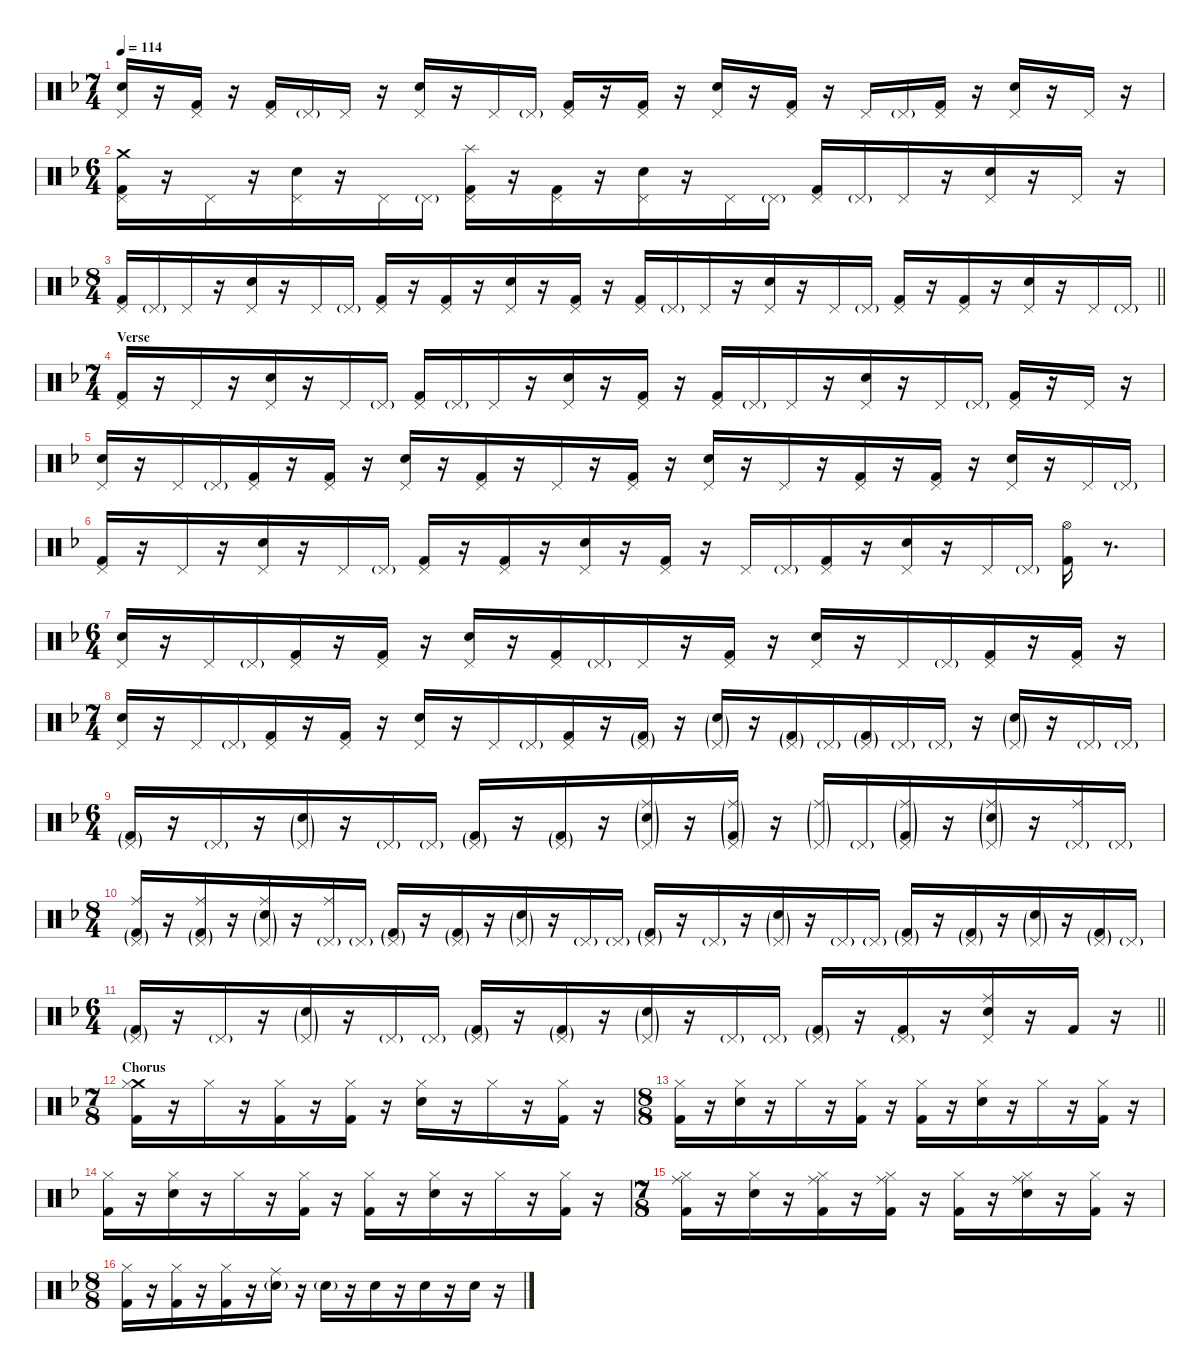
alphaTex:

\defaultSystemsLayout 4
\hideDynamics
\bracketExtendMode nobrackets
\singleTrackTrackNamePolicy hidden
\multiTrackTrackNamePolicy hidden
\firstSystemTrackNameMode fullname
\otherSystemsTrackNameOrientation horizontal
\track ("Drums" "drm.") {instrument percussion}
\staff {score}
\articulation defaults
\ts (7 4)
\tempo 114
\clef neutral
\ks dminor
("Pedal Hi-Hat (hit)"{acc forcenatural} "Snare (hit) 2"{acc forcenatural}).16{dy f beam Up} r.16{beam Up} ("Pedal Hi-Hat (hit)"{acc forcenatural} "Kick (hit) 2"{acc forcenatural}).16{beam Up} r.16{beam Up} ("Pedal Hi-Hat (hit)"{acc forcenatural} "Kick (hit) 2"{acc forcenatural}).16{beam Up} "Pedal Hi-Hat (hit)"{g acc forcenatural}.16{dy mf beam Up} "Pedal Hi-Hat (hit)"{acc forcenatural}.16{dy f beam Up} r.16{beam Up} ("Pedal Hi-Hat (hit)"{acc forcenatural} "Snare (hit) 2"{acc forcenatural}).16{beam Up} r.16{beam Up} "Pedal Hi-Hat (hit)"{acc forcenatural}.16{beam Up} "Pedal Hi-Hat (hit)"{g acc forcenatural}.16{dy mf beam Up} ("Pedal Hi-Hat (hit)"{acc forcenatural} "Kick (hit) 2"{acc forcenatural}).16{dy f beam Up} r.16{beam Up} ("Pedal Hi-Hat (hit)"{acc forcenatural} "Kick (hit) 2"{acc forcenatural}).16{beam Up} r.16{beam Up} ("Pedal Hi-Hat (hit)"{acc forcenatural} "Snare (hit) 2"{acc forcenatural}).16{beam Up} r.16{beam Up} ("Pedal Hi-Hat (hit)"{acc forcenatural} "Kick (hit) 2"{acc forcenatural}).16{beam Up} r.16{beam Up} "Pedal Hi-Hat (hit)"{acc forcenatural}.16{beam Up} "Pedal Hi-Hat (hit)"{g acc forcenatural}.16{dy mf beam Up} ("Pedal Hi-Hat (hit)"{acc forcenatural} "Kick (hit) 2"{acc forcenatural}).16{dy f beam Up} r.16{beam Up} ("Pedal Hi-Hat (hit)"{acc forcenatural} "Snare (hit) 2"{acc forcenatural}).16{beam Up} r.16{beam Up} "Pedal Hi-Hat (hit)"{acc forcenatural}.16{beam Up} r.16{beam Up} |
\ts (6 4)
\beaming (8 4 4 4 4)
("Crash medium (hit)"{acc forcenatural} "Pedal Hi-Hat (hit)"{acc forcenatural} "Kick (hit) 2"{acc forcenatural}).16{beam Down} r.16{beam Down} "Pedal Hi-Hat (hit)"{acc forcenatural}.16{beam Down} r.16{beam Down} ("Pedal Hi-Hat (hit)"{acc forcenatural} "Snare (hit) 2"{acc forcenatural}).16{beam Down} r.16{beam Down} "Pedal Hi-Hat (hit)"{acc forcenatural}.16{beam Down} "Pedal Hi-Hat (hit)"{g acc forcenatural}.16{dy mf beam Down} ("Splash (hit)"{acc forcenatural} "Pedal Hi-Hat (hit)"{acc forcenatural} "Kick (hit) 2"{acc forcenatural}).16{dy f beam Down} r.16{beam Down} ("Pedal Hi-Hat (hit)"{acc forcenatural} "Kick (hit) 2"{acc forcenatural}).16{beam Down} r.16{beam Down} ("Pedal Hi-Hat (hit)"{acc forcenatural} "Snare (hit) 2"{acc forcenatural}).16{beam Down} r.16{beam Down} "Pedal Hi-Hat (hit)"{acc forcenatural}.16{beam Down} "Pedal Hi-Hat (hit)"{g acc forcenatural}.16{dy mf beam Down} ("Pedal Hi-Hat (hit)"{acc forcenatural} "Kick (hit) 2"{acc forcenatural}).16{dy f beam Up} "Pedal Hi-Hat (hit)"{g acc forcenatural}.16{dy mf beam Up} "Pedal Hi-Hat (hit)"{acc forcenatural}.16{dy f beam Up} r.16{beam Up} ("Pedal Hi-Hat (hit)"{acc forcenatural} "Snare (hit) 2"{acc forcenatural}).16{beam Up} r.16{beam Up} "Pedal Hi-Hat (hit)"{acc forcenatural}.16{beam Up} r.16{beam Up} |
\ts (8 4)
\beaming (8 4 4 4 4)
\barLineRight lightlight
("Pedal Hi-Hat (hit)"{acc forcenatural} "Kick (hit) 2"{acc forcenatural}).16{beam Up} "Pedal Hi-Hat (hit)"{g acc forcenatural}.16{dy mf beam Up} "Pedal Hi-Hat (hit)"{acc forcenatural}.16{dy f beam Up} r.16{beam Up} ("Pedal Hi-Hat (hit)"{acc forcenatural} "Snare (hit) 2"{acc forcenatural}).16{beam Up} r.16{beam Up} "Pedal Hi-Hat (hit)"{acc forcenatural}.16{beam Up} "Pedal Hi-Hat (hit)"{g acc forcenatural}.16{dy mf beam Up} ("Pedal Hi-Hat (hit)"{acc forcenatural} "Kick (hit) 2"{acc forcenatural}).16{dy f beam Up} r.16{beam Up} ("Pedal Hi-Hat (hit)"{acc forcenatural} "Kick (hit) 2"{acc forcenatural}).16{beam Up} r.16{beam Up} ("Pedal Hi-Hat (hit)"{acc forcenatural} "Snare (hit) 2"{acc forcenatural}).16{beam Up} r.16{beam Up} ("Pedal Hi-Hat (hit)"{acc forcenatural} "Kick (hit) 2"{acc forcenatural}).16{beam Up} r.16{beam Up} ("Pedal Hi-Hat (hit)"{acc forcenatural} "Kick (hit) 2"{acc forcenatural}).16{beam Up} "Pedal Hi-Hat (hit)"{g acc forcenatural}.16{dy mf beam Up} "Pedal Hi-Hat (hit)"{acc forcenatural}.16{dy f beam Up} r.16{beam Up} ("Pedal Hi-Hat (hit)"{acc forcenatural} "Snare (hit) 2"{acc forcenatural}).16{beam Up} r.16{beam Up} "Pedal Hi-Hat (hit)"{acc forcenatural}.16{beam Up} "Pedal Hi-Hat (hit)"{g acc forcenatural}.16{dy mf beam Up} ("Pedal Hi-Hat (hit)"{acc forcenatural} "Kick (hit) 2"{acc forcenatural}).16{dy f beam Up} r.16{beam Up} ("Pedal Hi-Hat (hit)"{acc forcenatural} "Kick (hit) 2"{acc forcenatural}).16{beam Up} r.16{beam Up} ("Pedal Hi-Hat (hit)"{acc forcenatural} "Snare (hit) 2"{acc forcenatural}).16{beam Up} r.16{beam Up} "Pedal Hi-Hat (hit)"{acc forcenatural}.16{beam Up} "Pedal Hi-Hat (hit)"{g acc forcenatural}.16{dy mf beam Up} |
\ts (7 4)
\beaming (8 4 4 4 4)
\section ("" "Verse")
("Pedal Hi-Hat (hit)"{acc forcenatural} "Kick (hit) 2"{acc forcenatural}).16{dy f beam Up} r.16{beam Up} "Pedal Hi-Hat (hit)"{acc forcenatural}.16{beam Up} r.16{beam Up} ("Pedal Hi-Hat (hit)"{acc forcenatural} "Snare (hit) 2"{acc forcenatural}).16{beam Up} r.16{beam Up} "Pedal Hi-Hat (hit)"{acc forcenatural}.16{beam Up} "Pedal Hi-Hat (hit)"{g acc forcenatural}.16{dy mf beam Up} ("Pedal Hi-Hat (hit)"{acc forcenatural} "Kick (hit) 2"{acc forcenatural}).16{dy f beam Up} "Pedal Hi-Hat (hit)"{g acc forcenatural}.16{dy mf beam Up} "Pedal Hi-Hat (hit)"{acc forcenatural}.16{dy f beam Up} r.16{beam Up} ("Pedal Hi-Hat (hit)"{acc forcenatural} "Snare (hit) 2"{acc forcenatural}).16{beam Up} r.16{beam Up} ("Pedal Hi-Hat (hit)"{acc forcenatural} "Kick (hit) 2"{acc forcenatural}).16{beam Up} r.16{beam Up} ("Pedal Hi-Hat (hit)"{acc forcenatural} "Kick (hit) 2"{acc forcenatural}).16{beam Up} "Pedal Hi-Hat (hit)"{g acc forcenatural}.16{dy mf beam Up} "Pedal Hi-Hat (hit)"{acc forcenatural}.16{dy f beam Up} r.16{beam Up} ("Pedal Hi-Hat (hit)"{acc forcenatural} "Snare (hit) 2"{acc forcenatural}).16{beam Up} r.16{beam Up} "Pedal Hi-Hat (hit)"{acc forcenatural}.16{beam Up} "Pedal Hi-Hat (hit)"{g acc forcenatural}.16{dy mf beam Up} ("Pedal Hi-Hat (hit)"{acc forcenatural} "Kick (hit) 2"{acc forcenatural}).16{dy f beam Up} r.16{beam Up} "Pedal Hi-Hat (hit)"{acc forcenatural}.16{beam Up} r.16{beam Up} |
("Pedal Hi-Hat (hit)"{acc forcenatural} "Snare (hit) 2"{acc forcenatural}).16{beam Up} r.16{beam Up} "Pedal Hi-Hat (hit)"{acc forcenatural}.16{beam Up} "Pedal Hi-Hat (hit)"{g acc forcenatural}.16{dy mf beam Up} ("Pedal Hi-Hat (hit)"{acc forcenatural} "Kick (hit) 2"{acc forcenatural}).16{dy f beam Up} r.16{beam Up} ("Pedal Hi-Hat (hit)"{acc forcenatural} "Kick (hit) 2"{acc forcenatural}).16{beam Up} r.16{beam Up} ("Pedal Hi-Hat (hit)"{acc forcenatural} "Snare (hit) 2"{acc forcenatural}).16{beam Up} r.16{beam Up} ("Pedal Hi-Hat (hit)"{acc forcenatural} "Kick (hit) 2"{acc forcenatural}).16{beam Up} r.16{beam Up} "Pedal Hi-Hat (hit)"{acc forcenatural}.16{beam Up} r.16{beam Up} ("Pedal Hi-Hat (hit)"{acc forcenatural} "Kick (hit) 2"{acc forcenatural}).16{beam Up} r.16{beam Up} ("Pedal Hi-Hat (hit)"{acc forcenatural} "Snare (hit) 2"{acc forcenatural}).16{beam Up} r.16{beam Up} "Pedal Hi-Hat (hit)"{acc forcenatural}.16{beam Up} r.16{beam Up} ("Pedal Hi-Hat (hit)"{acc forcenatural} "Kick (hit) 2"{acc forcenatural}).16{beam Up} r.16{beam Up} ("Pedal Hi-Hat (hit)"{acc forcenatural} "Kick (hit) 2"{acc forcenatural}).16{beam Up} r.16{beam Up} ("Pedal Hi-Hat (hit)"{acc forcenatural} "Snare (hit) 2"{acc forcenatural}).16{beam Up} r.16{beam Up} "Pedal Hi-Hat (hit)"{acc forcenatural}.16{beam Up} "Pedal Hi-Hat (hit)"{g acc forcenatural}.16{dy mf beam Up} |
("Pedal Hi-Hat (hit)"{acc forcenatural} "Kick (hit) 2"{acc forcenatural}).16{dy f beam Up} r.16{beam Up} "Pedal Hi-Hat (hit)"{acc forcenatural}.16{beam Up} r.16{beam Up} ("Pedal Hi-Hat (hit)"{acc forcenatural} "Snare (hit) 2"{acc forcenatural}).16{beam Up} r.16{beam Up} "Pedal Hi-Hat (hit)"{acc forcenatural}.16{beam Up} "Pedal Hi-Hat (hit)"{g acc forcenatural}.16{dy mf beam Up} ("Pedal Hi-Hat (hit)"{acc forcenatural} "Kick (hit) 2"{acc forcenatural}).16{dy f beam Up} r.16{beam Up} ("Pedal Hi-Hat (hit)"{acc forcenatural} "Kick (hit) 2"{acc forcenatural}).16{beam Up} r.16{beam Up} ("Pedal Hi-Hat (hit)"{acc forcenatural} "Snare (hit) 2"{acc forcenatural}).16{beam Up} r.16{beam Up} ("Pedal Hi-Hat (hit)"{acc forcenatural} "Kick (hit) 2"{acc forcenatural}).16{beam Up} r.16{beam Up} "Pedal Hi-Hat (hit)"{acc forcenatural}.16{beam Up} "Pedal Hi-Hat (hit)"{g acc forcenatural}.16{dy mf beam Up} ("Pedal Hi-Hat (hit)"{acc forcenatural} "Kick (hit) 2"{acc forcenatural}).16{dy f beam Up} r.16{beam Up} ("Pedal Hi-Hat (hit)"{acc forcenatural} "Snare (hit) 2"{acc forcenatural}).16{beam Up} r.16{beam Up} "Pedal Hi-Hat (hit)"{acc forcenatural}.16{beam Up} "Pedal Hi-Hat (hit)"{g acc forcenatural}.16{dy mf beam Up} ("Hi-Hat (open)"{acc forcenatural} "Kick (hit) 2"{acc forcenatural}).16{dy f beam Down} r.8{d beam Down} |
\ts (6 4)
\beaming (8 4 4 4 4)
("Pedal Hi-Hat (hit)"{acc forcenatural} "Snare (hit) 2"{acc forcenatural}).16{beam Up} r.16{beam Up} "Pedal Hi-Hat (hit)"{acc forcenatural}.16{beam Up} "Pedal Hi-Hat (hit)"{g acc forcenatural}.16{dy mf beam Up} ("Pedal Hi-Hat (hit)"{acc forcenatural} "Kick (hit) 2"{acc forcenatural}).16{dy f beam Up} r.16{beam Up} ("Pedal Hi-Hat (hit)"{acc forcenatural} "Kick (hit) 2"{acc forcenatural}).16{beam Up} r.16{beam Up} ("Pedal Hi-Hat (hit)"{acc forcenatural} "Snare (hit) 2"{acc forcenatural}).16{beam Up} r.16{beam Up} ("Pedal Hi-Hat (hit)"{acc forcenatural} "Kick (hit) 2"{acc forcenatural}).16{beam Up} "Pedal Hi-Hat (hit)"{g acc forcenatural}.16{dy mf beam Up} "Pedal Hi-Hat (hit)"{acc forcenatural}.16{dy f beam Up} r.16{beam Up} ("Pedal Hi-Hat (hit)"{acc forcenatural} "Kick (hit) 2"{acc forcenatural}).16{beam Up} r.16{beam Up} ("Pedal Hi-Hat (hit)"{acc forcenatural} "Snare (hit) 2"{acc forcenatural}).16{beam Up} r.16{beam Up} "Pedal Hi-Hat (hit)"{acc forcenatural}.16{beam Up} "Pedal Hi-Hat (hit)"{g acc forcenatural}.16{dy mf beam Up} ("Pedal Hi-Hat (hit)"{acc forcenatural} "Kick (hit) 2"{acc forcenatural}).16{dy f beam Up} r.16{beam Up} ("Pedal Hi-Hat (hit)"{acc forcenatural} "Kick (hit) 2"{acc forcenatural}).16{beam Up} r.16{beam Up} |
\ts (7 4)
\beaming (8 4 4 4 4)
("Pedal Hi-Hat (hit)"{acc forcenatural} "Snare (hit) 2"{acc forcenatural}).16{beam Up} r.16{beam Up} "Pedal Hi-Hat (hit)"{acc forcenatural}.16{beam Up} "Pedal Hi-Hat (hit)"{g acc forcenatural}.16{dy mf beam Up} ("Pedal Hi-Hat (hit)"{acc forcenatural} "Kick (hit) 2"{acc forcenatural}).16{dy f beam Up} r.16{beam Up} ("Pedal Hi-Hat (hit)"{acc forcenatural} "Kick (hit) 2"{acc forcenatural}).16{beam Up} r.16{beam Up} ("Pedal Hi-Hat (hit)"{acc forcenatural} "Snare (hit) 2"{acc forcenatural}).16{beam Up} r.16{beam Up} "Pedal Hi-Hat (hit)"{acc forcenatural}.16{beam Up} "Pedal Hi-Hat (hit)"{g acc forcenatural}.16{dy mf beam Up} ("Pedal Hi-Hat (hit)"{acc forcenatural} "Kick (hit) 2"{acc forcenatural}).16{dy f beam Up} r.16{beam Up} ("Pedal Hi-Hat (hit)"{g acc forcenatural} "Kick (hit) 2"{g acc forcenatural}).16{dy mf beam Up} r.16{beam Up} ("Pedal Hi-Hat (hit)"{g acc forcenatural} "Snare (hit) 2"{g acc forcenatural}).16{beam Up} r.16{beam Up} ("Pedal Hi-Hat (hit)"{g acc forcenatural} "Kick (hit) 2"{g acc forcenatural}).16{beam Up} "Pedal Hi-Hat (hit)"{g acc forcenatural}.16{dy p beam Up} ("Pedal Hi-Hat (hit)"{g acc forcenatural} "Kick (hit) 2"{g acc forcenatural}).16{dy mf beam Up} "Pedal Hi-Hat (hit)"{g acc forcenatural}.16{dy p beam Up} "Pedal Hi-Hat (hit)"{g acc forcenatural}.16{dy mf beam Up} r.16{beam Up} ("Pedal Hi-Hat (hit)"{g acc forcenatural} "Snare (hit) 2"{g acc forcenatural}).16{beam Up} r.16{beam Up} "Pedal Hi-Hat (hit)"{g acc forcenatural}.16{beam Up} "Pedal Hi-Hat (hit)"{g acc forcenatural}.16{dy p beam Up} |
\ts (6 4)
\beaming (8 4 4 4 4)
("Pedal Hi-Hat (hit)"{g acc forcenatural} "Kick (hit) 2"{g acc forcenatural}).16{dy mf beam Up} r.16{beam Up} "Pedal Hi-Hat (hit)"{g acc forcenatural}.16{beam Up} r.16{beam Up} ("Pedal Hi-Hat (hit)"{g acc forcenatural} "Snare (hit) 2"{g acc forcenatural}).16{beam Up} r.16{beam Up} "Pedal Hi-Hat (hit)"{g acc forcenatural}.16{beam Up} "Pedal Hi-Hat (hit)"{g acc forcenatural}.16{dy p beam Up} ("Pedal Hi-Hat (hit)"{g acc forcenatural} "Kick (hit) 2"{g acc forcenatural}).16{dy mf beam Up} r.16{beam Up} ("Pedal Hi-Hat (hit)"{g acc forcenatural} "Kick (hit) 2"{g acc forcenatural}).16{beam Up} r.16{beam Up} ("Ride (middle)"{g acc forcenatural} "Pedal Hi-Hat (hit)"{g acc forcenatural} "Snare (hit) 2"{g acc forcenatural}).16{beam Up} r.16{beam Up} ("Ride (middle)"{g acc forcenatural} "Pedal Hi-Hat (hit)"{g acc forcenatural} "Kick (hit) 2"{g acc forcenatural}).16{beam Up} r.16{beam Up} ("Ride (middle)"{g acc forcenatural} "Pedal Hi-Hat (hit)"{g acc forcenatural}).16{beam Up} "Pedal Hi-Hat (hit)"{g acc forcenatural}.16{dy p beam Up} ("Ride (middle)"{g acc forcenatural} "Pedal Hi-Hat (hit)"{g acc forcenatural} "Kick (hit) 2"{g acc forcenatural}).16{dy mf beam Up} r.16{beam Up} ("Ride (middle)"{g acc forcenatural} "Pedal Hi-Hat (hit)"{g acc forcenatural} "Snare (hit) 2"{g acc forcenatural}).16{beam Up} r.16{beam Up} ("Ride (middle)"{acc forcenatural} "Pedal Hi-Hat (hit)"{g acc forcenatural}).16{dy f beam Up} "Pedal Hi-Hat (hit)"{g acc forcenatural}.16{dy p beam Up} |
\ts (8 4)
\beaming (8 4 4 4 4)
("Ride (middle)"{acc forcenatural} "Pedal Hi-Hat (hit)"{g acc forcenatural} "Kick (hit) 2"{g acc forcenatural}).16{dy f beam Up} r.16{beam Up} ("Ride (middle)"{acc forcenatural} "Pedal Hi-Hat (hit)"{g acc forcenatural} "Kick (hit) 2"{g acc forcenatural}).16{beam Up} r.16{beam Up} ("Ride (middle)"{acc forcenatural} "Pedal Hi-Hat (hit)"{g acc forcenatural} "Snare (hit) 2"{g acc forcenatural}).16{beam Up} r.16{beam Up} ("Ride (middle)"{acc forcenatural} "Pedal Hi-Hat (hit)"{g acc forcenatural}).16{beam Up} "Pedal Hi-Hat (hit)"{g acc forcenatural}.16{dy p beam Up} ("Pedal Hi-Hat (hit)"{g acc forcenatural} "Kick (hit) 2"{g acc forcenatural}).16{dy mf beam Up} r.16{beam Up} ("Pedal Hi-Hat (hit)"{g acc forcenatural} "Kick (hit) 2"{g acc forcenatural}).16{beam Up} r.16{beam Up} ("Pedal Hi-Hat (hit)"{g acc forcenatural} "Snare (hit) 2"{g acc forcenatural}).16{beam Up} r.16{beam Up} "Pedal Hi-Hat (hit)"{g acc forcenatural}.16{beam Up} "Pedal Hi-Hat (hit)"{g acc forcenatural}.16{dy p beam Up} ("Pedal Hi-Hat (hit)"{g acc forcenatural} "Kick (hit) 2"{g acc forcenatural}).16{dy mf beam Up} r.16{beam Up} "Pedal Hi-Hat (hit)"{g acc forcenatural}.16{beam Up} r.16{beam Up} ("Pedal Hi-Hat (hit)"{g acc forcenatural} "Snare (hit) 2"{g acc forcenatural}).16{beam Up} r.16{beam Up} "Pedal Hi-Hat (hit)"{g acc forcenatural}.16{beam Up} "Pedal Hi-Hat (hit)"{g acc forcenatural}.16{dy p beam Up} ("Pedal Hi-Hat (hit)"{g acc forcenatural} "Kick (hit) 2"{g acc forcenatural}).16{dy mf beam Up} r.16{beam Up} ("Pedal Hi-Hat (hit)"{g acc forcenatural} "Kick (hit) 2"{g acc forcenatural}).16{beam Up} r.16{beam Up} ("Pedal Hi-Hat (hit)"{g acc forcenatural} "Snare (hit) 2"{g acc forcenatural}).16{beam Up} r.16{beam Up} ("Pedal Hi-Hat (hit)"{g acc forcenatural} "Kick (hit) 2"{g acc forcenatural}).16{beam Up} "Pedal Hi-Hat (hit)"{g acc forcenatural}.16{dy p beam Up} |
\ts (6 4)
\beaming (8 4 4 4 4)
\barLineRight lightlight
("Pedal Hi-Hat (hit)"{g acc forcenatural} "Kick (hit) 2"{g acc forcenatural}).16{dy mf beam Up} r.16{beam Up} "Pedal Hi-Hat (hit)"{g acc forcenatural}.16{beam Up} r.16{beam Up} ("Pedal Hi-Hat (hit)"{g acc forcenatural} "Snare (hit) 2"{g acc forcenatural}).16{beam Up} r.16{beam Up} "Pedal Hi-Hat (hit)"{g acc forcenatural}.16{beam Up} "Pedal Hi-Hat (hit)"{g acc forcenatural}.16{dy p beam Up} ("Pedal Hi-Hat (hit)"{g acc forcenatural} "Kick (hit) 2"{g acc forcenatural}).16{dy mf beam Up} r.16{beam Up} ("Pedal Hi-Hat (hit)"{g acc forcenatural} "Kick (hit) 2"{g acc forcenatural}).16{beam Up} r.16{beam Up} ("Pedal Hi-Hat (hit)"{g acc forcenatural} "Snare (hit) 2"{g acc forcenatural}).16{beam Up} r.16{beam Up} "Pedal Hi-Hat (hit)"{g acc forcenatural}.16{beam Up} "Pedal Hi-Hat (hit)"{g acc forcenatural}.16{dy p beam Up} ("Pedal Hi-Hat (hit)"{g acc forcenatural} "Kick (hit) 2"{g acc forcenatural}).16{dy mf beam Up} r.16{beam Up} ("Pedal Hi-Hat (hit)"{g acc forcenatural} "Kick (hit) 2"{acc forcenatural}).16{dy f beam Up} r.16{beam Up} ("Ride (middle)"{acc forcenatural} "Pedal Hi-Hat (hit)"{acc forcenatural} "Snare (hit) 2"{acc forcenatural}).16{beam Up} r.16{beam Up} "Kick (hit) 2"{acc forcenatural}.16{beam Up} r.16{beam Up} |
\ts (7 8)
\beaming (8 4 4 4 4)
\section ("" "Chorus")
("Crash medium (hit)"{acc forcenatural} "Hi-Hat (closed)"{acc forcenatural} "Kick (hit) 2"{acc forcenatural}).16{beam Down} r.16{beam Down} "Hi-Hat (closed)"{acc forcenatural}.16{beam Down} r.16{beam Down} ("Hi-Hat (closed)"{acc forcenatural} "Kick (hit) 2"{acc forcenatural}).16{beam Down} r.16{beam Down} ("Hi-Hat (closed)"{acc forcenatural} "Kick (hit) 2"{acc forcenatural}).16{beam Down} r.16{beam Down} ("Hi-Hat (closed)"{acc forcenatural} "Snare (hit) 2"{acc forcenatural}).16{beam Down} r.16{beam Down} "Hi-Hat (closed)"{acc forcenatural}.16{beam Down} r.16{beam Down} ("Hi-Hat (closed)"{acc forcenatural} "Kick (hit) 2"{acc forcenatural}).16{beam Down} r.16{beam Down} |
\ts (8 8)
\beaming (8 4 4 4 4)
("Hi-Hat (closed)"{acc forcenatural} "Kick (hit) 2"{acc forcenatural}).16{beam Down} r.16{beam Down} ("Hi-Hat (closed)"{acc forcenatural} "Snare (hit) 2"{acc forcenatural}).16{beam Down} r.16{beam Down} "Hi-Hat (closed)"{acc forcenatural}.16{beam Down} r.16{beam Down} ("Hi-Hat (closed)"{acc forcenatural} "Kick (hit) 2"{acc forcenatural}).16{beam Down} r.16{beam Down} ("Hi-Hat (closed)"{acc forcenatural} "Kick (hit) 2"{acc forcenatural}).16{beam Down} r.16{beam Down} ("Hi-Hat (closed)"{acc forcenatural} "Snare (hit) 2"{acc forcenatural}).16{beam Down} r.16{beam Down} "Hi-Hat (closed)"{acc forcenatural}.16{beam Down} r.16{beam Down} ("Hi-Hat (closed)"{acc forcenatural} "Kick (hit) 2"{acc forcenatural}).16{beam Down} r.16{beam Down} |
("Hi-Hat (closed)"{acc forcenatural} "Kick (hit) 2"{acc forcenatural}).16{beam Down} r.16{beam Down} ("Hi-Hat (closed)"{acc forcenatural} "Snare (hit) 2"{acc forcenatural}).16{beam Down} r.16{beam Down} "Hi-Hat (closed)"{acc forcenatural}.16{beam Down} r.16{beam Down} ("Hi-Hat (closed)"{acc forcenatural} "Kick (hit) 2"{acc forcenatural}).16{beam Down} r.16{beam Down} ("Hi-Hat (closed)"{acc forcenatural} "Kick (hit) 2"{acc forcenatural}).16{beam Down} r.16{beam Down} ("Hi-Hat (closed)"{acc forcenatural} "Snare (hit) 2"{acc forcenatural}).16{beam Down} r.16{beam Down} "Hi-Hat (closed)"{acc forcenatural}.16{beam Down} r.16{beam Down} ("Hi-Hat (closed)"{acc forcenatural} "Kick (hit) 2"{acc forcenatural}).16{beam Down} r.16{beam Down} |
\ts (7 8)
\beaming (8 4 4 4 4)
("Ride (middle)"{acc forcenatural} "Hi-Hat (closed)"{acc forcenatural} "Kick (hit) 2"{acc forcenatural}).16{beam Down} r.16{beam Down} ("Hi-Hat (closed)"{acc forcenatural} "Snare (hit) 2"{acc forcenatural}).16{beam Down} r.16{beam Down} ("Ride (middle)"{acc forcenatural} "Hi-Hat (closed)"{acc forcenatural} "Kick (hit) 2"{acc forcenatural}).16{beam Down} r.16{beam Down} ("Ride (middle)"{acc forcenatural} "Hi-Hat (closed)"{acc forcenatural} "Kick (hit) 2"{acc forcenatural}).16{beam Down} r.16{beam Down} ("Hi-Hat (closed)"{acc forcenatural} "Kick (hit) 2"{acc forcenatural}).16{beam Down} r.16{beam Down} ("Ride (middle)"{acc forcenatural} "Hi-Hat (closed)"{acc forcenatural} "Snare (hit) 2"{acc forcenatural}).16{beam Down} r.16{beam Down} ("Hi-Hat (closed)"{acc forcenatural} "Kick (hit) 2"{acc forcenatural}).16{beam Down} r.16{beam Down} |
\ts (8 8)
\beaming (8 4 4 4 4)
("Hi-Hat (closed)"{acc forcenatural} "Kick (hit) 2"{acc forcenatural}).16{beam Down} r.16{beam Down} ("Hi-Hat (closed)"{acc forcenatural} "Kick (hit) 2"{acc forcenatural}).16{beam Down} r.16{beam Down} ("Hi-Hat (closed)"{acc forcenatural} "Kick (hit) 2"{acc forcenatural}).16{beam Down} r.16{beam Down} ("Ride (middle)"{acc forcenatural} "Snare (hit) 2"{g acc forcenatural}).16{beam Down} r.16{beam Down} "Snare (hit) 2"{g acc forcenatural}.16{dy mf beam Down} r.16{beam Down} "Snare (hit) 2"{acc forcenatural}.16{dy f beam Down} r.16{beam Down} "Snare (hit) 2"{acc forcenatural}.16{beam Down} r.16{beam Down} "Snare (hit) 2"{acc forcenatural}.16{beam Down} r.16{beam Down}
